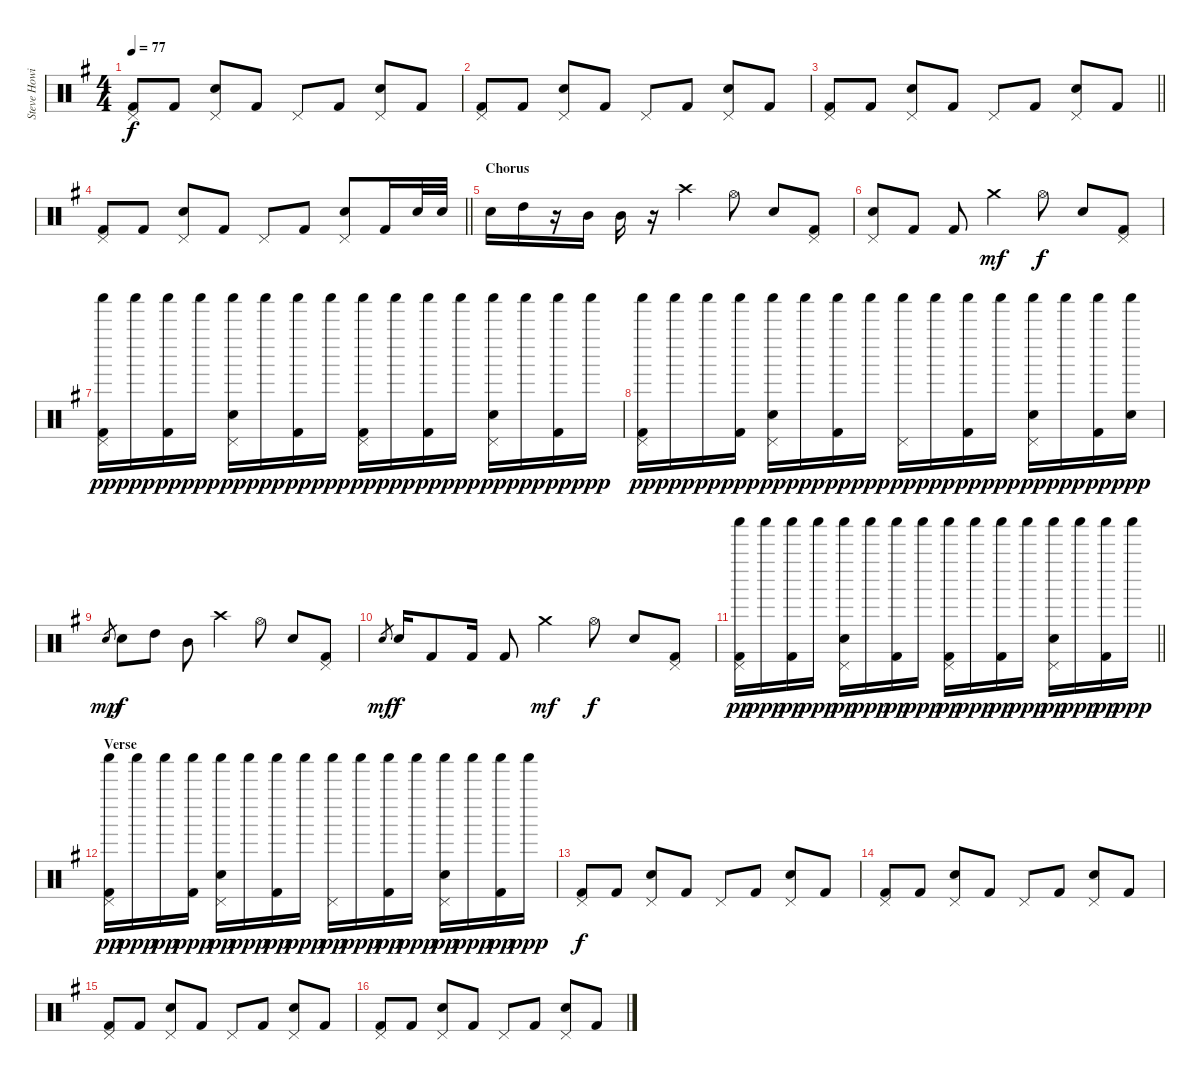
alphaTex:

\track ("Steve Howie" "Steve Howi") {instrument percussion}
\staff {score}
\articulation defaults
\ts (4 4)
\tempo 77
\clef neutral
\ks g
("Pedal Hi-Hat (hit)" "Kick (hit) 2").8{dy f} "Kick (hit) 2".8 ("Pedal Hi-Hat (hit)" "Electric Snare (hit)").8 "Kick (hit) 2".8 "Pedal Hi-Hat (hit)".8 "Kick (hit) 2".8 ("Pedal Hi-Hat (hit)" "Electric Snare (hit)").8 "Kick (hit) 2".8 |
("Pedal Hi-Hat (hit)" "Kick (hit) 2").8 "Kick (hit) 2".8 ("Pedal Hi-Hat (hit)" "Electric Snare (hit)").8 "Kick (hit) 2".8 "Pedal Hi-Hat (hit)".8 "Kick (hit) 2".8 ("Pedal Hi-Hat (hit)" "Electric Snare (hit)").8 "Kick (hit) 2".8 |
\barLineRight lightlight
("Pedal Hi-Hat (hit)" "Kick (hit) 2").8 "Kick (hit) 2".8 ("Pedal Hi-Hat (hit)" "Electric Snare (hit)").8 "Kick (hit) 2".8 "Pedal Hi-Hat (hit)".8 "Kick (hit) 2".8 ("Pedal Hi-Hat (hit)" "Electric Snare (hit)").8 "Kick (hit) 2".8 |
\barLineRight lightlight
("Pedal Hi-Hat (hit)" "Kick (hit) 2").8 "Kick (hit) 2".8 ("Pedal Hi-Hat (hit)" "Electric Snare (hit)").8 "Kick (hit) 2".8 "Pedal Hi-Hat (hit)".8 "Kick (hit) 2".8 ("Pedal Hi-Hat (hit)" "Electric Snare (hit)").8 "Kick (hit) 2".16 "Electric Snare (hit)".32 "Electric Snare (hit)".32 |
\section ("" "Chorus")
"Electric Snare (hit)".16 "High Tom (hit)".16 r.16 "Mid Tom (hit)".16 "Mid Tom (hit)".16 r.16 "Crash high (hit)".4 "Hi-Hat (open)".8 "Electric Snare (hit)".8 ("Pedal Hi-Hat (hit)" "Kick (hit) 2").8 |
("Pedal Hi-Hat (hit)" "Electric Snare (hit)").8 "Kick (hit) 2".8 "Kick (hit) 2".8 "Crash medium (hit)".4{dy mf} "Hi-Hat (open)".8{dy f} "Electric Snare (hit)".8 ("Pedal Hi-Hat (hit)" "Kick (hit) 2").8 |
("Pedal Hi-Hat (hit)" "Shaker (hit)" "Kick (hit) 2").16{dy pp} "Shaker (hit)".16{dy ppp} ("Shaker (hit)" "Kick (hit) 2").16{dy pp} "Shaker (hit)".16{dy ppp} ("Pedal Hi-Hat (hit)" "Electric Snare (hit)" "Shaker (hit)").16{dy pp} "Shaker (hit)".16{dy ppp} ("Shaker (hit)" "Kick (hit) 2").16{dy pp} "Shaker (hit)".16{dy ppp} ("Pedal Hi-Hat (hit)" "Shaker (hit)" "Kick (hit) 2").16{dy pp} "Shaker (hit)".16{dy ppp} ("Shaker (hit)" "Kick (hit) 2").16{dy pp} "Shaker (hit)".16{dy ppp} ("Pedal Hi-Hat (hit)" "Electric Snare (hit)" "Shaker (hit)").16{dy pp} "Shaker (hit)".16{dy ppp} ("Shaker (hit)" "Kick (hit) 2").16{dy pp} "Shaker (hit)".16{dy ppp} |
("Pedal Hi-Hat (hit)" "Shaker (hit)" "Kick (hit) 2").16{dy pp} "Shaker (hit)".16{dy ppp} "Shaker (hit)".16{dy pp} ("Shaker (hit)" "Kick (hit) 2").16{dy ppp} ("Pedal Hi-Hat (hit)" "Electric Snare (hit)" "Shaker (hit)").16{dy pp} "Shaker (hit)".16{dy ppp} ("Shaker (hit)" "Kick (hit) 2").16{dy pp} "Shaker (hit)".16{dy ppp} ("Pedal Hi-Hat (hit)" "Shaker (hit)").16{dy pp} "Shaker (hit)".16{dy ppp} ("Shaker (hit)" "Kick (hit) 2").16{dy pp} "Shaker (hit)".16{dy ppp} ("Pedal Hi-Hat (hit)" "Electric Snare (hit)" "Shaker (hit)").16{dy pp} "Shaker (hit)".16{dy ppp} ("Shaker (hit)" "Kick (hit) 2").16{dy pp} ("Electric Snare (hit)" "Shaker (hit)").16{dy ppp} |
"Electric Snare (hit)".8{gr dy mp} "Electric Snare (hit)".8{dy f} "High Tom (hit)".8 "Mid Tom (hit)".8 "Crash high (hit)".4 "Hi-Hat (open)".8 "Electric Snare (hit)".8 ("Pedal Hi-Hat (hit)" "Kick (hit) 2").8 |
"Electric Snare (hit)".8{gr dy mf} "Electric Snare (hit)".16{dy f} "Kick (hit) 2".8 "Kick (hit) 2".16 "Kick (hit) 2".8 "Crash medium (hit)".4{dy mf} "Hi-Hat (open)".8{dy f} "Electric Snare (hit)".8 ("Pedal Hi-Hat (hit)" "Kick (hit) 2").8 |
\barLineRight lightlight
("Pedal Hi-Hat (hit)" "Shaker (hit)" "Kick (hit) 2").16{dy pp} "Shaker (hit)".16{dy ppp} ("Shaker (hit)" "Kick (hit) 2").16{dy pp} "Shaker (hit)".16{dy ppp} ("Pedal Hi-Hat (hit)" "Electric Snare (hit)" "Shaker (hit)").16{dy pp} "Shaker (hit)".16{dy ppp} ("Shaker (hit)" "Kick (hit) 2").16{dy pp} "Shaker (hit)".16{dy ppp} ("Pedal Hi-Hat (hit)" "Shaker (hit)" "Kick (hit) 2").16{dy pp} "Shaker (hit)".16{dy ppp} ("Shaker (hit)" "Kick (hit) 2").16{dy pp} "Shaker (hit)".16{dy ppp} ("Pedal Hi-Hat (hit)" "Electric Snare (hit)" "Shaker (hit)").16{dy pp} "Shaker (hit)".16{dy ppp} ("Shaker (hit)" "Kick (hit) 2").16{dy pp} "Shaker (hit)".16{dy ppp} |
\section ("" "Verse")
("Pedal Hi-Hat (hit)" "Shaker (hit)" "Kick (hit) 2").16{dy pp} "Shaker (hit)".16{dy ppp} "Shaker (hit)".16{dy pp} ("Shaker (hit)" "Kick (hit) 2").16{dy ppp} ("Pedal Hi-Hat (hit)" "Electric Snare (hit)" "Shaker (hit)").16{dy pp} "Shaker (hit)".16{dy ppp} ("Shaker (hit)" "Kick (hit) 2").16{dy pp} "Shaker (hit)".16{dy ppp} ("Pedal Hi-Hat (hit)" "Shaker (hit)").16{dy pp} "Shaker (hit)".16{dy ppp} ("Shaker (hit)" "Kick (hit) 2").16{dy pp} "Shaker (hit)".16{dy ppp} ("Pedal Hi-Hat (hit)" "Electric Snare (hit)" "Shaker (hit)").16{dy pp} "Shaker (hit)".16{dy ppp} ("Shaker (hit)" "Kick (hit) 2").16{dy pp} "Shaker (hit)".16{dy ppp} |
("Pedal Hi-Hat (hit)" "Kick (hit) 2").8{dy f} "Kick (hit) 2".8 ("Pedal Hi-Hat (hit)" "Electric Snare (hit)").8 "Kick (hit) 2".8 "Pedal Hi-Hat (hit)".8 "Kick (hit) 2".8 ("Pedal Hi-Hat (hit)" "Electric Snare (hit)").8 "Kick (hit) 2".8 |
("Pedal Hi-Hat (hit)" "Kick (hit) 2").8 "Kick (hit) 2".8 ("Pedal Hi-Hat (hit)" "Electric Snare (hit)").8 "Kick (hit) 2".8 "Pedal Hi-Hat (hit)".8 "Kick (hit) 2".8 ("Pedal Hi-Hat (hit)" "Electric Snare (hit)").8 "Kick (hit) 2".8 |
("Pedal Hi-Hat (hit)" "Kick (hit) 2").8 "Kick (hit) 2".8 ("Pedal Hi-Hat (hit)" "Electric Snare (hit)").8 "Kick (hit) 2".8 "Pedal Hi-Hat (hit)".8 "Kick (hit) 2".8 ("Pedal Hi-Hat (hit)" "Electric Snare (hit)").8 "Kick (hit) 2".8 |
("Pedal Hi-Hat (hit)" "Kick (hit) 2").8 "Kick (hit) 2".8 ("Pedal Hi-Hat (hit)" "Electric Snare (hit)").8 "Kick (hit) 2".8 "Pedal Hi-Hat (hit)".8 "Kick (hit) 2".8 ("Pedal Hi-Hat (hit)" "Electric Snare (hit)").8 "Kick (hit) 2".8
